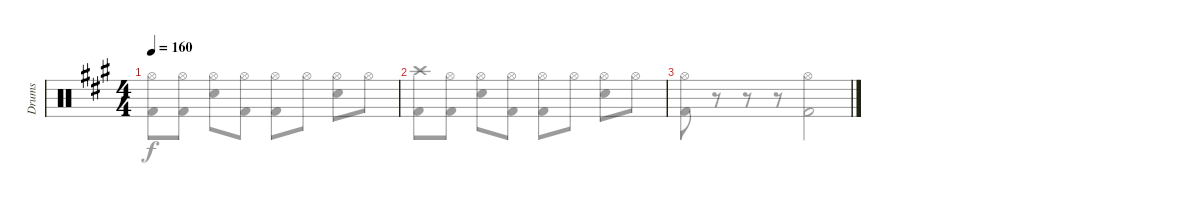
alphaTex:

\track ("Drums" "Drums") {instrument percussion}
\staff {score}
\articulation defaults
\voice
\ts (4 4)
\tempo 160
\clef neutral
\ks f#minor
|
|
\voice
\clef neutral
\ks f#minor
("Kick (hit) 2" "Hi-Hat (open)").8{dy f} ("Kick (hit) 2" "Hi-Hat (open)").8 ("Electric Snare (hit)" "Hi-Hat (open)").8 ("Kick (hit) 2" "Hi-Hat (open)").8 ("Kick (hit) 2" "Hi-Hat (open)").8 "Hi-Hat (open)".8 ("Electric Snare (hit)" "Hi-Hat (open)").8 "Hi-Hat (open)".8 |
("Kick (hit) 2" "Crash high (hit)").8 ("Kick (hit) 2" "Hi-Hat (open)").8 ("Electric Snare (hit)" "Hi-Hat (open)").8 ("Kick (hit) 2" "Hi-Hat (open)").8 ("Kick (hit) 2" "Hi-Hat (open)").8 "Hi-Hat (open)".8 ("Electric Snare (hit)" "Hi-Hat (open)").8 "Hi-Hat (open)".8 |
("Kick (hit) 2" "Hi-Hat (open)").8 r.8 r.8 r.8 ("Kick (hit) 2" "Hi-Hat (open)").2
